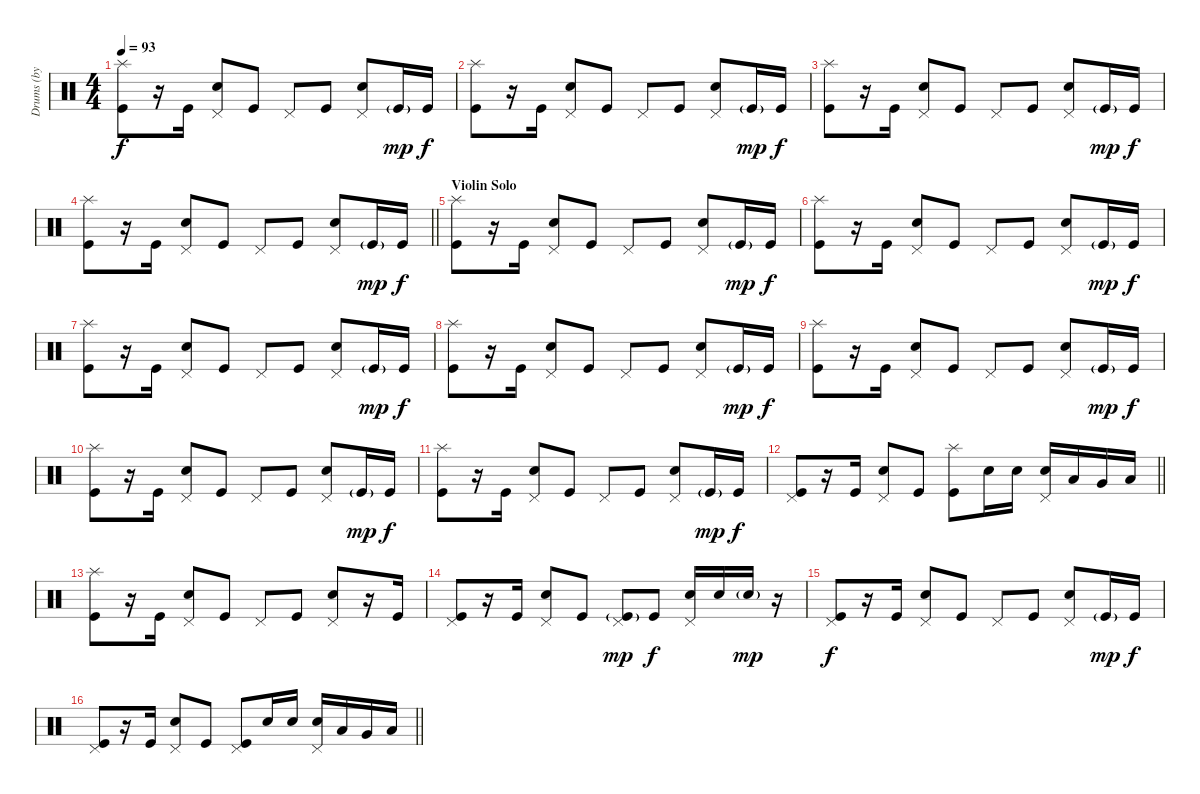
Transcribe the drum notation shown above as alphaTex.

\track ("Drums (by maxor)" "Drums (by ") {instrument percussion}
\staff {score}
\articulation defaults
\ts (4 4)
\tempo 93
\clef neutral
\ks c
("Splash (hit)" "Kick (hit)").8{dy f} r.16 "Kick (hit)".16 ("Pedal Hi-Hat (hit)" "Electric Snare (hit)").8 "Kick (hit)".8 "Pedal Hi-Hat (hit)".8 "Kick (hit)".8 ("Pedal Hi-Hat (hit)" "Electric Snare (hit)").8 "Kick (hit)"{g}.16{dy mp} "Kick (hit)".16{dy f} |
("Splash (hit)" "Kick (hit)").8 r.16 "Kick (hit)".16 ("Pedal Hi-Hat (hit)" "Electric Snare (hit)").8 "Kick (hit)".8 "Pedal Hi-Hat (hit)".8 "Kick (hit)".8 ("Pedal Hi-Hat (hit)" "Electric Snare (hit)").8 "Kick (hit)"{g}.16{dy mp} "Kick (hit)".16{dy f} |
("Splash (hit)" "Kick (hit)").8 r.16 "Kick (hit)".16 ("Pedal Hi-Hat (hit)" "Electric Snare (hit)").8 "Kick (hit)".8 "Pedal Hi-Hat (hit)".8 "Kick (hit)".8 ("Pedal Hi-Hat (hit)" "Electric Snare (hit)").8 "Kick (hit)"{g}.16{dy mp} "Kick (hit)".16{dy f} |
\barLineRight lightlight
("Splash (hit)" "Kick (hit)").8 r.16 "Kick (hit)".16 ("Pedal Hi-Hat (hit)" "Electric Snare (hit)").8 "Kick (hit)".8 "Pedal Hi-Hat (hit)".8 "Kick (hit)".8 ("Pedal Hi-Hat (hit)" "Electric Snare (hit)").8 "Kick (hit)"{g}.16{dy mp} "Kick (hit)".16{dy f} |
\section ("" "Violin Solo")
("Splash (hit)" "Kick (hit)").8 r.16 "Kick (hit)".16 ("Pedal Hi-Hat (hit)" "Electric Snare (hit)").8 "Kick (hit)".8 "Pedal Hi-Hat (hit)".8 "Kick (hit)".8 ("Pedal Hi-Hat (hit)" "Electric Snare (hit)").8 "Kick (hit)"{g}.16{dy mp} "Kick (hit)".16{dy f} |
("Splash (hit)" "Kick (hit)").8 r.16 "Kick (hit)".16 ("Pedal Hi-Hat (hit)" "Electric Snare (hit)").8 "Kick (hit)".8 "Pedal Hi-Hat (hit)".8 "Kick (hit)".8 ("Pedal Hi-Hat (hit)" "Electric Snare (hit)").8 "Kick (hit)"{g}.16{dy mp} "Kick (hit)".16{dy f} |
("Splash (hit)" "Kick (hit)").8 r.16 "Kick (hit)".16 ("Pedal Hi-Hat (hit)" "Electric Snare (hit)").8 "Kick (hit)".8 "Pedal Hi-Hat (hit)".8 "Kick (hit)".8 ("Pedal Hi-Hat (hit)" "Electric Snare (hit)").8 "Kick (hit)"{g}.16{dy mp} "Kick (hit)".16{dy f} |
("Splash (hit)" "Kick (hit)").8 r.16 "Kick (hit)".16 ("Pedal Hi-Hat (hit)" "Electric Snare (hit)").8 "Kick (hit)".8 "Pedal Hi-Hat (hit)".8 "Kick (hit)".8 ("Pedal Hi-Hat (hit)" "Electric Snare (hit)").8 "Kick (hit)"{g}.16{dy mp} "Kick (hit)".16{dy f} |
("Splash (hit)" "Kick (hit)").8 r.16 "Kick (hit)".16 ("Pedal Hi-Hat (hit)" "Electric Snare (hit)").8 "Kick (hit)".8 "Pedal Hi-Hat (hit)".8 "Kick (hit)".8 ("Pedal Hi-Hat (hit)" "Electric Snare (hit)").8 "Kick (hit)"{g}.16{dy mp} "Kick (hit)".16{dy f} |
("Splash (hit)" "Kick (hit)").8 r.16 "Kick (hit)".16 ("Pedal Hi-Hat (hit)" "Electric Snare (hit)").8 "Kick (hit)".8 "Pedal Hi-Hat (hit)".8 "Kick (hit)".8 ("Pedal Hi-Hat (hit)" "Electric Snare (hit)").8 "Kick (hit)"{g}.16{dy mp} "Kick (hit)".16{dy f} |
("Splash (hit)" "Kick (hit)").8 r.16 "Kick (hit)".16 ("Pedal Hi-Hat (hit)" "Electric Snare (hit)").8 "Kick (hit)".8 "Pedal Hi-Hat (hit)".8 "Kick (hit)".8 ("Pedal Hi-Hat (hit)" "Electric Snare (hit)").8 "Kick (hit)"{g}.16{dy mp} "Kick (hit)".16{dy f} |
\barLineRight lightlight
("Pedal Hi-Hat (hit)" "Kick (hit)").8 r.16 "Kick (hit)".16 ("Pedal Hi-Hat (hit)" "Electric Snare (hit)").8 "Kick (hit)".8 ("Splash (hit)" "Kick (hit)").8 "Electric Snare (hit)".16 "Electric Snare (hit)".16 ("Pedal Hi-Hat (hit)" "Electric Snare (hit)").16 "Low Tom (hit)".16 "Very Low Tom (hit)".16 "Low Tom (hit)".16 |
("Splash (hit)" "Kick (hit)").8 r.16 "Kick (hit)".16 ("Pedal Hi-Hat (hit)" "Electric Snare (hit)").8 "Kick (hit)".8 "Pedal Hi-Hat (hit)".8 "Kick (hit)".8 ("Pedal Hi-Hat (hit)" "Electric Snare (hit)").8 r.16 "Kick (hit)".16 |
("Pedal Hi-Hat (hit)" "Kick (hit)").8 r.16 "Kick (hit)".16 ("Pedal Hi-Hat (hit)" "Electric Snare (hit)").8 "Kick (hit)".8 ("Pedal Hi-Hat (hit)" "Kick (hit)"{g}).8{dy mp} "Kick (hit)".8{dy f} ("Pedal Hi-Hat (hit)" "Electric Snare (hit)").16 "Electric Snare (hit)".16 "Electric Snare (hit)"{g}.16{dy mp} r.16 |
("Pedal Hi-Hat (hit)" "Kick (hit)").8{dy f} r.16 "Kick (hit)".16 ("Pedal Hi-Hat (hit)" "Electric Snare (hit)").8 "Kick (hit)".8 "Pedal Hi-Hat (hit)".8 "Kick (hit)".8 ("Pedal Hi-Hat (hit)" "Electric Snare (hit)").8 "Kick (hit)"{g}.16{dy mp} "Kick (hit)".16{dy f} |
\barLineRight lightlight
("Pedal Hi-Hat (hit)" "Kick (hit)").8 r.16 "Kick (hit)".16 ("Pedal Hi-Hat (hit)" "Electric Snare (hit)").8 "Kick (hit)".8 ("Pedal Hi-Hat (hit)" "Kick (hit)").8 "Electric Snare (hit)".16 "Electric Snare (hit)".16 ("Pedal Hi-Hat (hit)" "Electric Snare (hit)").16 "Low Tom (hit)".16 "Very Low Tom (hit)".16 "Low Tom (hit)".16
